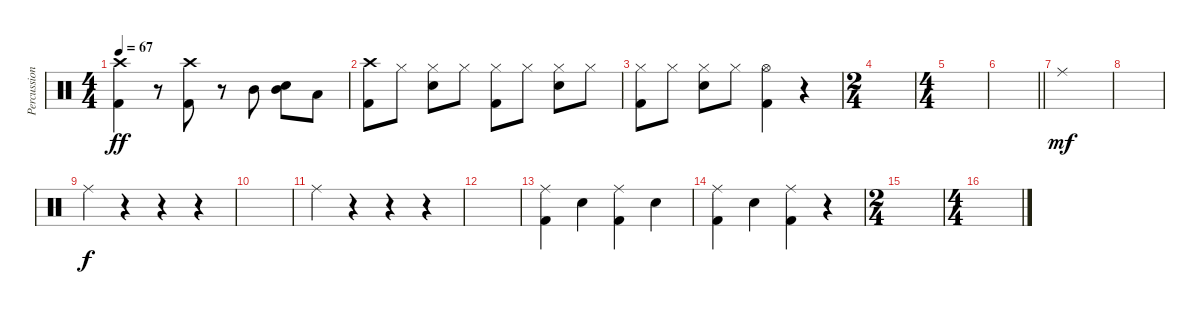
\track ("Percussion" "Percussion") {instrument percussion}
\staff {score}
\articulation defaults
\ts (4 4)
\tempo 67
\clef neutral
\ks c
("Crash high (hit)" "Kick (hit) 2").4{dy ff} r.8 ("Crash high (hit)" "Kick (hit) 2").8 r.8 "Mid Tom (hit)".8 ("Mid Tom (hit)" "Snare (hit) 2").8 "Low Floor Tom (hit)".8 |
("Crash high (hit)" "Kick (hit) 2").8 "Hi-Hat (closed)".8 ("Hi-Hat (closed)" "Snare (hit) 2").8 "Hi-Hat (closed)".8 ("Hi-Hat (closed)" "Kick (hit) 2").8 "Hi-Hat (closed)".8 ("Hi-Hat (closed)" "Snare (hit) 2").8 "Hi-Hat (closed)".8 |
("Hi-Hat (closed)" "Kick (hit) 2").8 "Hi-Hat (closed)".8 ("Hi-Hat (closed)" "Snare (hit) 2").8 "Hi-Hat (closed)".8 ("Hi-Hat (open)" "Kick (hit) 2").4 r.4 |
\ts (2 4)
|
\ts (4 4)
|
\barLineRight lightlight
|
"Ride (middle)".1{dy mf} |
|
"Ride (middle)".4{dy f} r.4 r.4 r.4 |
|
"Ride (middle)".4 r.4 r.4 r.4 |
|
("Ride (middle)" "Kick (hit) 2").4 "Snare (hit) 2".4 ("Ride (middle)" "Kick (hit) 2").4 "Snare (hit) 2".4 |
("Ride (middle)" "Kick (hit) 2").4 "Snare (hit) 2".4 ("Ride (middle)" "Kick (hit) 2").4 r.4 |
\ts (2 4)
|
\ts (4 4)
